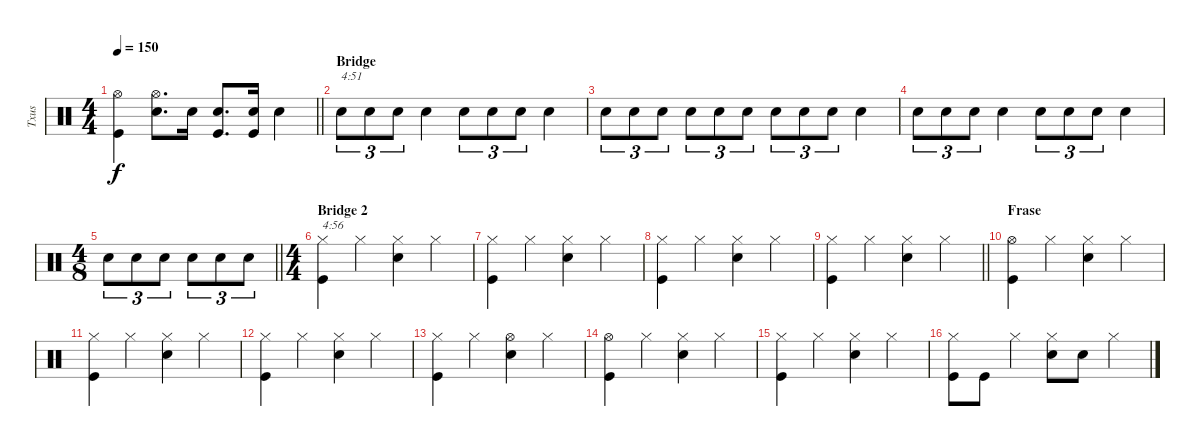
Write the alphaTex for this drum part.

\track ("Txus" "Txus") {instrument percussion}
\staff {score}
\articulation defaults
\ts (4 4)
\tempo 150
\clef neutral
\barLineRight lightlight
\ks c
("Kick (hit)" "Hi-Hat (open)").4{dy f} ("Snare (hit) 2" "Hi-Hat (open)").8{d} "Snare (hit) 2".16 ("Kick (hit)" "Snare (hit) 2").8{d} ("Kick (hit)" "Snare (hit) 2").16 "Snare (hit) 2".4 |
\section ("" "Bridge")
"Snare (hit) 2".8{tu (3 2) txt "4:51"} "Snare (hit) 2".8{tu (3 2)} "Snare (hit) 2".8{tu (3 2)} "Snare (hit) 2".4 "Snare (hit) 2".8{tu (3 2)} "Snare (hit) 2".8{tu (3 2)} "Snare (hit) 2".8{tu (3 2)} "Snare (hit) 2".4 |
"Snare (hit) 2".8{tu (3 2)} "Snare (hit) 2".8{tu (3 2)} "Snare (hit) 2".8{tu (3 2)} "Snare (hit) 2".8{tu (3 2)} "Snare (hit) 2".8{tu (3 2)} "Snare (hit) 2".8{tu (3 2)} "Snare (hit) 2".8{tu (3 2)} "Snare (hit) 2".8{tu (3 2)} "Snare (hit) 2".8{tu (3 2)} "Snare (hit) 2".4 |
"Snare (hit) 2".8{tu (3 2)} "Snare (hit) 2".8{tu (3 2)} "Snare (hit) 2".8{tu (3 2)} "Snare (hit) 2".4 "Snare (hit) 2".8{tu (3 2)} "Snare (hit) 2".8{tu (3 2)} "Snare (hit) 2".8{tu (3 2)} "Snare (hit) 2".4 |
\ts (4 8)
\barLineRight lightlight "Snare (hit) 2".8{tu (3 2)} "Snare (hit) 2".8{tu (3 2)} "Snare (hit) 2".8{tu (3 2)} "Snare (hit) 2".8{tu (3 2)} "Snare (hit) 2".8{tu (3 2)} "Snare (hit) 2".8{tu (3 2)}
|
\ts (4 4)
\section ("" "Bridge 2")
("Kick (hit)" "Hi-Hat (closed)").4{txt "4:56"} "Hi-Hat (closed)".4 ("Snare (hit) 2" "Hi-Hat (closed)").4 "Hi-Hat (closed)".4 |
("Kick (hit)" "Hi-Hat (closed)").4 "Hi-Hat (closed)".4 ("Snare (hit) 2" "Hi-Hat (closed)").4 "Hi-Hat (closed)".4 |
("Kick (hit)" "Hi-Hat (closed)").4 "Hi-Hat (closed)".4 ("Snare (hit) 2" "Hi-Hat (closed)").4 "Hi-Hat (closed)".4 |
\barLineRight lightlight
("Kick (hit)" "Hi-Hat (closed)").4 "Hi-Hat (closed)".4 ("Snare (hit) 2" "Hi-Hat (closed)").4 "Hi-Hat (closed)".4 |
\section ("" "Frase")
("Kick (hit)" "Hi-Hat (open)").4 "Hi-Hat (closed)".4 ("Snare (hit) 2" "Hi-Hat (closed)").4 "Hi-Hat (closed)".4 |
("Kick (hit)" "Hi-Hat (closed)").4 "Hi-Hat (closed)".4 ("Snare (hit) 2" "Hi-Hat (closed)").4 "Hi-Hat (closed)".4 |
("Kick (hit)" "Hi-Hat (closed)").4 "Hi-Hat (closed)".4 ("Snare (hit) 2" "Hi-Hat (closed)").4 "Hi-Hat (closed)".4 |
("Kick (hit)" "Hi-Hat (closed)").4 "Hi-Hat (closed)".4 ("Snare (hit) 2" "Hi-Hat (open)").4 "Hi-Hat (closed)".4 |
("Kick (hit)" "Hi-Hat (open)").4 "Hi-Hat (closed)".4 ("Snare (hit) 2" "Hi-Hat (closed)").4 "Hi-Hat (closed)".4 |
("Kick (hit)" "Hi-Hat (closed)").4 "Hi-Hat (closed)".4 ("Snare (hit) 2" "Hi-Hat (closed)").4 "Hi-Hat (closed)".4 |
("Kick (hit)" "Hi-Hat (closed)").8 "Kick (hit)".8 "Hi-Hat (closed)".4 ("Snare (hit) 2" "Hi-Hat (closed)").8 "Snare (hit) 2".8 "Hi-Hat (closed)".4
